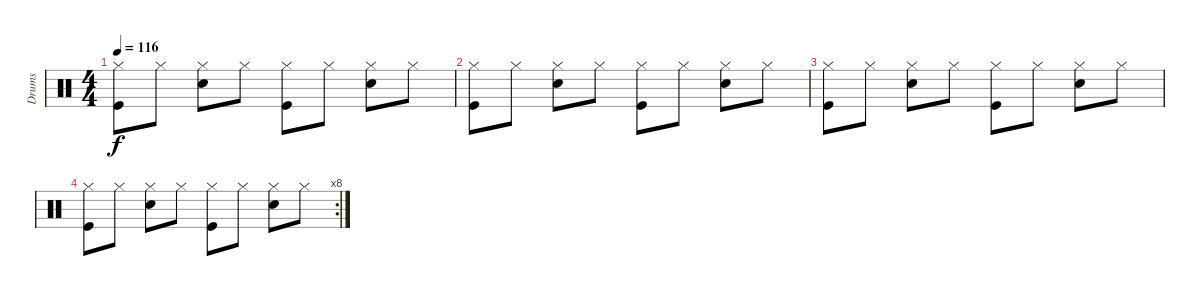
\track ("Drums" "Drums") {instrument percussion}
\staff {score}
\articulation defaults
\ts (4 4)
\tempo 116
\clef neutral
\ks c
("Hi-Hat (closed)" "Kick (hit)").8{dy f} "Hi-Hat (closed)".8 ("Hi-Hat (closed)" "Snare (hit) 2").8 "Hi-Hat (closed)".8 ("Hi-Hat (closed)" "Kick (hit)").8 "Hi-Hat (closed)".8 ("Hi-Hat (closed)" "Snare (hit) 2").8 "Hi-Hat (closed)".8 |
("Hi-Hat (closed)" "Kick (hit)").8 "Hi-Hat (closed)".8 ("Hi-Hat (closed)" "Snare (hit) 2").8 "Hi-Hat (closed)".8 ("Hi-Hat (closed)" "Kick (hit)").8 "Hi-Hat (closed)".8 ("Hi-Hat (closed)" "Snare (hit) 2").8 "Hi-Hat (closed)".8 |
("Hi-Hat (closed)" "Kick (hit)").8 "Hi-Hat (closed)".8 ("Hi-Hat (closed)" "Snare (hit) 2").8 "Hi-Hat (closed)".8 ("Hi-Hat (closed)" "Kick (hit)").8 "Hi-Hat (closed)".8 ("Hi-Hat (closed)" "Snare (hit) 2").8 "Hi-Hat (closed)".8 |
\rc 8
("Hi-Hat (closed)" "Kick (hit)").8 "Hi-Hat (closed)".8 ("Hi-Hat (closed)" "Snare (hit) 2").8 "Hi-Hat (closed)".8 ("Hi-Hat (closed)" "Kick (hit)").8 "Hi-Hat (closed)".8 ("Hi-Hat (closed)" "Snare (hit) 2").8 "Hi-Hat (closed)".8
